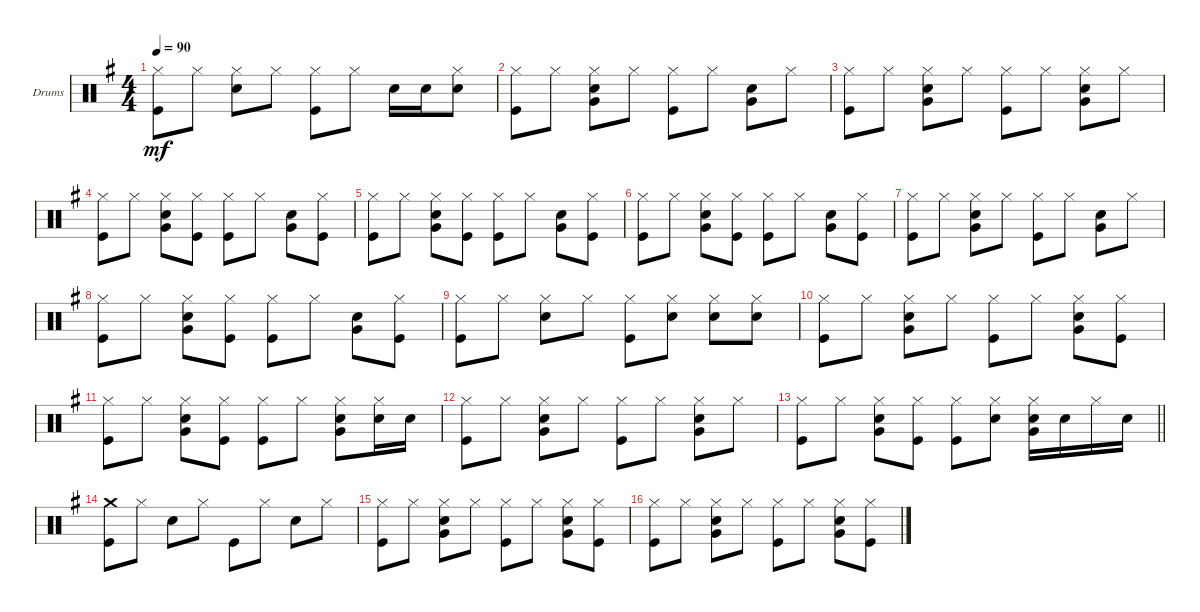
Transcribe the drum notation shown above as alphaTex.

\defaultSystemsLayout 4
\bracketExtendMode groupsimilarinstruments
\firstSystemTrackNameOrientation horizontal
\otherSystemsTrackNameOrientation horizontal
\track ("Drumkit" "Drums") {instrument percussion}
\staff {score}
\articulation defaults
\ts (4 4)
\tempo 90
\clef neutral
\scale
0.333333
\ks g
("Kick (hit)" "Hi-Hat (closed)").8{dy mf} "Hi-Hat (closed)".8 ("Snare (hit) 2" "Hi-Hat (closed)").8 "Hi-Hat (closed)".8 ("Kick (hit)" "Hi-Hat (closed)").8 "Hi-Hat (closed)".8 "Snare (hit) 2".16 "Snare (hit) 2".16 ("Snare (hit) 2" "Hi-Hat (closed)").8 |
\scale
0.333333 ("Kick (hit)" "Hi-Hat (closed)").8 "Hi-Hat (closed)".8 ("Snare (hit) 2" "Hi-Hat (closed)" "Very Low Tom (hit)").8 "Hi-Hat (closed)".8 ("Kick (hit)" "Hi-Hat (closed)").8 "Hi-Hat (closed)".8 ("Snare (hit) 2" "Very Low Tom (hit)").8 "Hi-Hat (closed)".8 |
\scale
0.333333 ("Kick (hit)" "Hi-Hat (closed)").8 "Hi-Hat (closed)".8 ("Snare (hit) 2" "Hi-Hat (closed)" "Very Low Tom (hit)").8 "Hi-Hat (closed)".8 ("Kick (hit)" "Hi-Hat (closed)").8 "Hi-Hat (closed)".8 ("Snare (hit) 2" "Hi-Hat (closed)" "Very Low Tom (hit)").8 "Hi-Hat (closed)".8 |
\scale
0.333333 ("Kick (hit)" "Hi-Hat (closed)").8 "Hi-Hat (closed)".8 ("Snare (hit) 2" "Hi-Hat (closed)" "Very Low Tom (hit)").8 ("Kick (hit)" "Hi-Hat (closed)").8 ("Kick (hit)" "Hi-Hat (closed)").8 "Hi-Hat (closed)".8 ("Snare (hit) 2" "Very Low Tom (hit)").8 ("Kick (hit)" "Hi-Hat (closed)").8 |
\scale
0.333333 ("Kick (hit)" "Hi-Hat (closed)").8 "Hi-Hat (closed)".8 ("Snare (hit) 2" "Hi-Hat (closed)" "Very Low Tom (hit)").8 ("Kick (hit)" "Hi-Hat (closed)").8 ("Kick (hit)" "Hi-Hat (closed)").8 "Hi-Hat (closed)".8 ("Snare (hit) 2" "Very Low Tom (hit)").8 ("Kick (hit)" "Hi-Hat (closed)").8 |
\scale
0.333333 ("Kick (hit)" "Hi-Hat (closed)").8 "Hi-Hat (closed)".8 ("Snare (hit) 2" "Hi-Hat (closed)" "Very Low Tom (hit)").8 ("Kick (hit)" "Hi-Hat (closed)").8 ("Kick (hit)" "Hi-Hat (closed)").8 "Hi-Hat (closed)".8 ("Snare (hit) 2" "Very Low Tom (hit)").8 ("Kick (hit)" "Hi-Hat (closed)").8 |
\scale
0.333333 ("Kick (hit)" "Hi-Hat (closed)").8 "Hi-Hat (closed)".8 ("Snare (hit) 2" "Hi-Hat (closed)" "Very Low Tom (hit)").8 "Hi-Hat (closed)".8 ("Kick (hit)" "Hi-Hat (closed)").8 "Hi-Hat (closed)".8 ("Snare (hit) 2" "Very Low Tom (hit)").8 "Hi-Hat (closed)".8 |
\scale
0.333333 ("Kick (hit)" "Hi-Hat (closed)").8 "Hi-Hat (closed)".8 ("Snare (hit) 2" "Hi-Hat (closed)" "Very Low Tom (hit)").8 ("Kick (hit)" "Hi-Hat (closed)").8 ("Kick (hit)" "Hi-Hat (closed)").8 "Hi-Hat (closed)".8 ("Snare (hit) 2" "Very Low Tom (hit)").8 ("Kick (hit)" "Hi-Hat (closed)").8 |
\scale
0.333333 ("Kick (hit)" "Hi-Hat (closed)").8 "Hi-Hat (closed)".8 ("Snare (hit) 2" "Hi-Hat (closed)").8 "Hi-Hat (closed)".8 ("Kick (hit)" "Hi-Hat (closed)").8 ("Snare (hit) 2" "Hi-Hat (closed)").8 ("Snare (hit) 2" "Hi-Hat (closed)").8 ("Snare (hit) 2" "Hi-Hat (closed)").8 |
\scale
0.333333 ("Kick (hit)" "Hi-Hat (closed)").8 "Hi-Hat (closed)".8 ("Snare (hit) 2" "Hi-Hat (closed)" "Very Low Tom (hit)").8 "Hi-Hat (closed)".8 ("Kick (hit)" "Hi-Hat (closed)").8 "Hi-Hat (closed)".8 ("Snare (hit) 2" "Hi-Hat (closed)" "Very Low Tom (hit)").8 ("Kick (hit)" "Hi-Hat (closed)").8 |
\scale
0.333333 ("Kick (hit)" "Hi-Hat (closed)").8 "Hi-Hat (closed)".8 ("Snare (hit) 2" "Hi-Hat (closed)" "Very Low Tom (hit)").8 ("Kick (hit)" "Hi-Hat (closed)").8 ("Kick (hit)" "Hi-Hat (closed)").8 "Hi-Hat (closed)".8 ("Snare (hit) 2" "Hi-Hat (closed)" "Very Low Tom (hit)").8 ("Snare (hit) 2" "Hi-Hat (closed)").16 "Snare (hit) 2".16 |
\scale
0.333333 ("Kick (hit)" "Hi-Hat (closed)").8 "Hi-Hat (closed)".8 ("Snare (hit) 2" "Hi-Hat (closed)" "Very Low Tom (hit)").8 "Hi-Hat (closed)".8 ("Kick (hit)" "Hi-Hat (closed)").8 "Hi-Hat (closed)".8 ("Snare (hit) 2" "Hi-Hat (closed)" "Very Low Tom (hit)").8 "Hi-Hat (closed)".8 |
\scale
0.333333
\barLineRight lightlight
("Kick (hit)" "Hi-Hat (closed)").8 "Hi-Hat (closed)".8 ("Snare (hit) 2" "Hi-Hat (closed)" "Very Low Tom (hit)").8 ("Kick (hit)" "Hi-Hat (closed)").8 ("Kick (hit)" "Hi-Hat (closed)").8 ("Snare (hit) 2" "Hi-Hat (closed)").8 ("Snare (hit) 2" "Hi-Hat (closed)" "Very Low Tom (hit)").16 "Snare (hit) 2".16 "Hi-Hat (closed)".16 "Snare (hit) 2".16 |
\scale
0.333333 ("Kick (hit)" "Crash medium (hit)").8 "Hi-Hat (closed)".8 "Snare (hit) 2".8 "Hi-Hat (closed)".8 "Kick (hit)".8 "Hi-Hat (closed)".8 "Snare (hit) 2".8 "Hi-Hat (closed)".8 |
\scale
0.333333 ("Kick (hit)" "Hi-Hat (closed)").8 "Hi-Hat (closed)".8 ("Snare (hit) 2" "Hi-Hat (closed)" "Very Low Tom (hit)").8 "Hi-Hat (closed)".8 ("Kick (hit)" "Hi-Hat (closed)").8 "Hi-Hat (closed)".8 ("Snare (hit) 2" "Hi-Hat (closed)" "Very Low Tom (hit)").8 ("Kick (hit)" "Hi-Hat (closed)").8 |
\scale
0.333333 ("Kick (hit)" "Hi-Hat (closed)").8 "Hi-Hat (closed)".8 ("Snare (hit) 2" "Hi-Hat (closed)" "Very Low Tom (hit)").8 "Hi-Hat (closed)".8 ("Kick (hit)" "Hi-Hat (closed)").8 "Hi-Hat (closed)".8 ("Snare (hit) 2" "Hi-Hat (closed)" "Very Low Tom (hit)").8 ("Kick (hit)" "Hi-Hat (closed)").8
